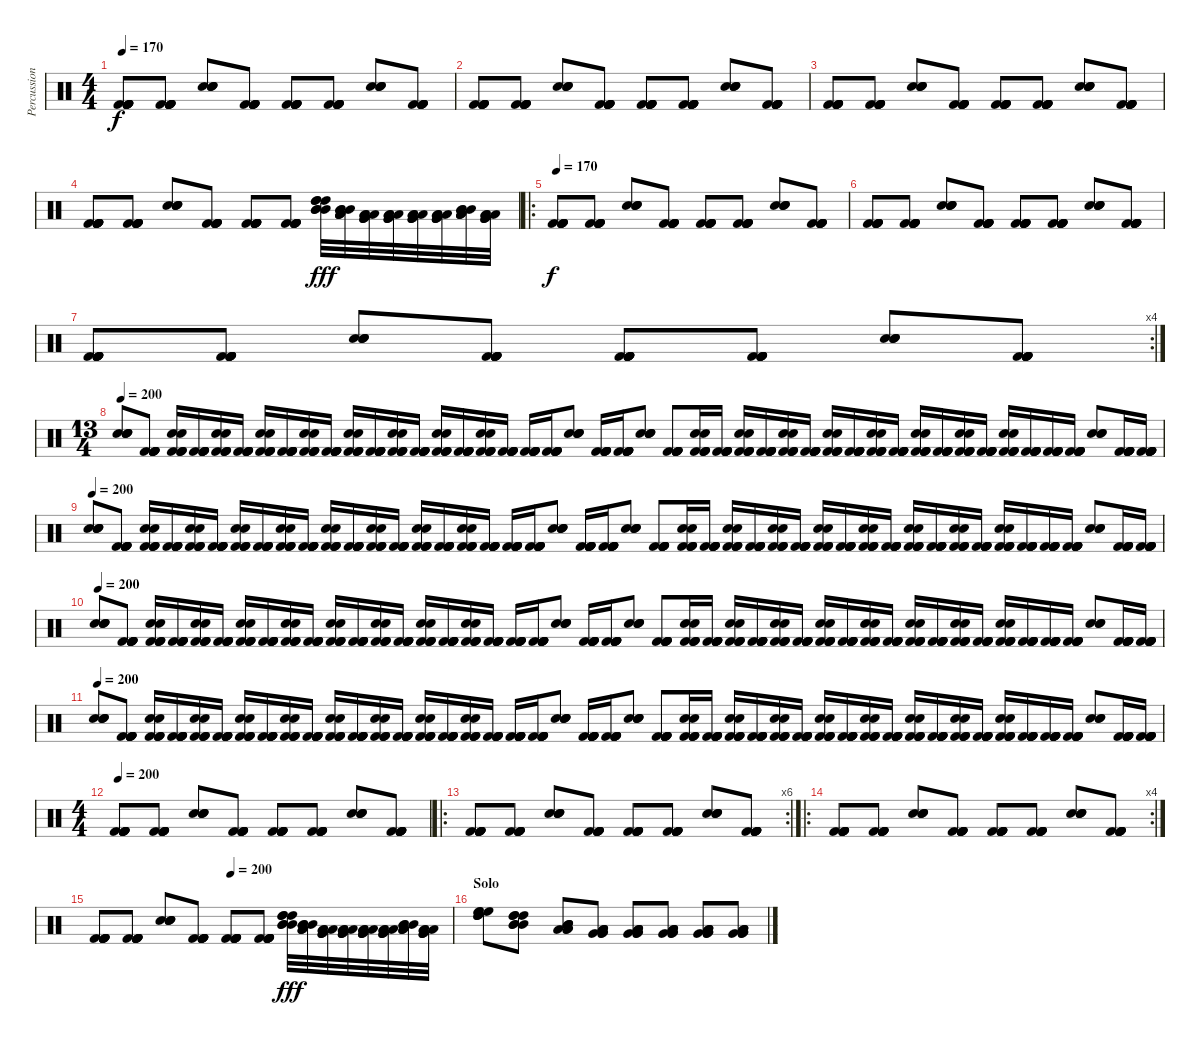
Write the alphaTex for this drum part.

\track ("Percussion" "Percussion") {instrument percussion}
\staff {score}
\articulation defaults
\ts (4 4)
\tempo 170
\clef neutral
\ks c
("Kick (hit) 2" "Kick (hit) 2" "Kick (hit) 2" "Kick (hit) 2" "Kick (hit) 2" "Kick (hit) 2").8{dy f} ("Kick (hit) 2" "Kick (hit) 2" "Kick (hit) 2" "Kick (hit) 2" "Kick (hit) 2" "Kick (hit) 2").8 ("Snare (hit) 2" "Snare (hit) 2" "Snare (hit) 2" "Snare (hit) 2").8 ("Kick (hit) 2" "Kick (hit) 2" "Kick (hit) 2" "Kick (hit) 2" "Kick (hit) 2" "Kick (hit) 2").8 ("Kick (hit) 2" "Kick (hit) 2" "Kick (hit) 2" "Kick (hit) 2" "Kick (hit) 2" "Kick (hit) 2").8 ("Kick (hit) 2" "Kick (hit) 2" "Kick (hit) 2" "Kick (hit) 2" "Kick (hit) 2" "Kick (hit) 2").8 ("Snare (hit) 2" "Snare (hit) 2" "Snare (hit) 2" "Snare (hit) 2").8 ("Kick (hit) 2" "Kick (hit) 2" "Kick (hit) 2" "Kick (hit) 2" "Kick (hit) 2" "Kick (hit) 2").8 |
("Kick (hit) 2" "Kick (hit) 2" "Kick (hit) 2" "Kick (hit) 2" "Kick (hit) 2" "Kick (hit) 2").8 ("Kick (hit) 2" "Kick (hit) 2" "Kick (hit) 2" "Kick (hit) 2" "Kick (hit) 2" "Kick (hit) 2").8 ("Snare (hit) 2" "Snare (hit) 2" "Snare (hit) 2" "Snare (hit) 2").8 ("Kick (hit) 2" "Kick (hit) 2" "Kick (hit) 2" "Kick (hit) 2" "Kick (hit) 2" "Kick (hit) 2").8 ("Kick (hit) 2" "Kick (hit) 2" "Kick (hit) 2" "Kick (hit) 2" "Kick (hit) 2" "Kick (hit) 2").8 ("Kick (hit) 2" "Kick (hit) 2" "Kick (hit) 2" "Kick (hit) 2" "Kick (hit) 2" "Kick (hit) 2").8 ("Snare (hit) 2" "Snare (hit) 2" "Snare (hit) 2" "Snare (hit) 2").8 ("Kick (hit) 2" "Kick (hit) 2" "Kick (hit) 2" "Kick (hit) 2" "Kick (hit) 2" "Kick (hit) 2").8 |
("Kick (hit) 2" "Kick (hit) 2" "Kick (hit) 2" "Kick (hit) 2" "Kick (hit) 2" "Kick (hit) 2").8 ("Kick (hit) 2" "Kick (hit) 2" "Kick (hit) 2" "Kick (hit) 2" "Kick (hit) 2" "Kick (hit) 2").8 ("Snare (hit) 2" "Snare (hit) 2" "Snare (hit) 2" "Snare (hit) 2").8 ("Kick (hit) 2" "Kick (hit) 2" "Kick (hit) 2" "Kick (hit) 2" "Kick (hit) 2" "Kick (hit) 2").8 ("Kick (hit) 2" "Kick (hit) 2" "Kick (hit) 2" "Kick (hit) 2" "Kick (hit) 2" "Kick (hit) 2").8 ("Kick (hit) 2" "Kick (hit) 2" "Kick (hit) 2" "Kick (hit) 2" "Kick (hit) 2" "Kick (hit) 2").8 ("Snare (hit) 2" "Snare (hit) 2" "Snare (hit) 2" "Snare (hit) 2").8 ("Kick (hit) 2" "Kick (hit) 2" "Kick (hit) 2" "Kick (hit) 2" "Kick (hit) 2" "Kick (hit) 2").8 |
("Kick (hit) 2" "Kick (hit) 2" "Kick (hit) 2" "Kick (hit) 2" "Kick (hit) 2" "Kick (hit) 2").8 ("Kick (hit) 2" "Kick (hit) 2" "Kick (hit) 2" "Kick (hit) 2" "Kick (hit) 2" "Kick (hit) 2").8 ("Snare (hit) 2" "Snare (hit) 2" "Snare (hit) 2" "Snare (hit) 2").8 ("Kick (hit) 2" "Kick (hit) 2" "Kick (hit) 2" "Kick (hit) 2" "Kick (hit) 2" "Kick (hit) 2").8 ("Kick (hit) 2" "Kick (hit) 2" "Kick (hit) 2" "Kick (hit) 2" "Kick (hit) 2" "Kick (hit) 2").8 ("Kick (hit) 2" "Kick (hit) 2" "Kick (hit) 2" "Kick (hit) 2" "Kick (hit) 2" "Kick (hit) 2").8 ("High Tom (hit)" "High Tom (hit)" "High Tom (hit)" "Mid Tom (hit)" "Mid Tom (hit)" "Mid Tom (hit)").32{dy fff} ("Mid Tom (hit)" "Mid Tom (hit)" "Mid Tom (hit)" "Low Tom (hit)" "Low Tom (hit)" "Low Tom (hit)").32 ("Low Tom (hit)" "Low Tom (hit)" "Low Tom (hit)" "Very Low Tom (hit)" "Very Low Tom (hit)" "Very Low Tom (hit)").32 ("Very Low Tom (hit)" "Very Low Tom (hit)" "Very Low Tom (hit)" "Low Floor Tom (hit)" "Low Floor Tom (hit)" "Low Floor Tom (hit)").32 ("Low Tom (hit)" "Low Tom (hit)" "Low Tom (hit)" "Very Low Tom (hit)" "Very Low Tom (hit)" "Very Low Tom (hit)").32 ("Very Low Tom (hit)" "Very Low Tom (hit)" "Very Low Tom (hit)" "Low Floor Tom (hit)" "Low Floor Tom (hit)" "Low Floor Tom (hit)").32 ("Mid Tom (hit)" "Mid Tom (hit)" "Mid Tom (hit)" "Low Tom (hit)" "Low Tom (hit)" "Low Tom (hit)").32 ("Very Low Tom (hit)" "Very Low Tom (hit)" "Very Low Tom (hit)" "Low Floor Tom (hit)" "Low Floor Tom (hit)" "Low Floor Tom (hit)").32 |
\ro
\tempo 170
("Kick (hit) 2" "Kick (hit) 2" "Kick (hit) 2" "Kick (hit) 2" "Kick (hit) 2" "Kick (hit) 2").8{dy f} ("Kick (hit) 2" "Kick (hit) 2" "Kick (hit) 2" "Kick (hit) 2" "Kick (hit) 2" "Kick (hit) 2").8 ("Snare (hit) 2" "Snare (hit) 2" "Snare (hit) 2" "Snare (hit) 2").8 ("Kick (hit) 2" "Kick (hit) 2" "Kick (hit) 2" "Kick (hit) 2" "Kick (hit) 2" "Kick (hit) 2").8 ("Kick (hit) 2" "Kick (hit) 2" "Kick (hit) 2" "Kick (hit) 2" "Kick (hit) 2" "Kick (hit) 2").8 ("Kick (hit) 2" "Kick (hit) 2" "Kick (hit) 2" "Kick (hit) 2" "Kick (hit) 2" "Kick (hit) 2").8 ("Snare (hit) 2" "Snare (hit) 2" "Snare (hit) 2" "Snare (hit) 2").8 ("Kick (hit) 2" "Kick (hit) 2" "Kick (hit) 2" "Kick (hit) 2" "Kick (hit) 2" "Kick (hit) 2").8 |
("Kick (hit) 2" "Kick (hit) 2" "Kick (hit) 2" "Kick (hit) 2" "Kick (hit) 2" "Kick (hit) 2").8 ("Kick (hit) 2" "Kick (hit) 2" "Kick (hit) 2" "Kick (hit) 2" "Kick (hit) 2" "Kick (hit) 2").8 ("Snare (hit) 2" "Snare (hit) 2" "Snare (hit) 2" "Snare (hit) 2").8 ("Kick (hit) 2" "Kick (hit) 2" "Kick (hit) 2" "Kick (hit) 2" "Kick (hit) 2" "Kick (hit) 2").8 ("Kick (hit) 2" "Kick (hit) 2" "Kick (hit) 2" "Kick (hit) 2" "Kick (hit) 2" "Kick (hit) 2").8 ("Kick (hit) 2" "Kick (hit) 2" "Kick (hit) 2" "Kick (hit) 2" "Kick (hit) 2" "Kick (hit) 2").8 ("Snare (hit) 2" "Snare (hit) 2" "Snare (hit) 2" "Snare (hit) 2").8 ("Kick (hit) 2" "Kick (hit) 2" "Kick (hit) 2" "Kick (hit) 2" "Kick (hit) 2" "Kick (hit) 2").8 |
\rc 4
("Kick (hit) 2" "Kick (hit) 2" "Kick (hit) 2" "Kick (hit) 2" "Kick (hit) 2" "Kick (hit) 2").8 ("Kick (hit) 2" "Kick (hit) 2" "Kick (hit) 2" "Kick (hit) 2" "Kick (hit) 2" "Kick (hit) 2").8 ("Snare (hit) 2" "Snare (hit) 2" "Snare (hit) 2" "Snare (hit) 2").8 ("Kick (hit) 2" "Kick (hit) 2" "Kick (hit) 2" "Kick (hit) 2" "Kick (hit) 2" "Kick (hit) 2").8 ("Kick (hit) 2" "Kick (hit) 2" "Kick (hit) 2" "Kick (hit) 2" "Kick (hit) 2" "Kick (hit) 2").8 ("Kick (hit) 2" "Kick (hit) 2" "Kick (hit) 2" "Kick (hit) 2" "Kick (hit) 2" "Kick (hit) 2").8 ("Snare (hit) 2" "Snare (hit) 2" "Snare (hit) 2" "Snare (hit) 2").8 ("Kick (hit) 2" "Kick (hit) 2" "Kick (hit) 2" "Kick (hit) 2" "Kick (hit) 2" "Kick (hit) 2").8 |
\ts (13 4)
\tempo 200
("Snare (hit) 2" "Snare (hit) 2" "Snare (hit) 2" "Snare (hit) 2").8 ("Kick (hit) 2" "Kick (hit) 2" "Kick (hit) 2" "Kick (hit) 2" "Kick (hit) 2" "Kick (hit) 2").8 ("Kick (hit) 2" "Kick (hit) 2" "Kick (hit) 2" "Kick (hit) 2" "Snare (hit) 2" "Snare (hit) 2").16 ("Kick (hit) 2" "Kick (hit) 2" "Kick (hit) 2" "Kick (hit) 2" "Kick (hit) 2" "Kick (hit) 2").16 ("Kick (hit) 2" "Kick (hit) 2" "Kick (hit) 2" "Kick (hit) 2" "Snare (hit) 2" "Snare (hit) 2").16 ("Kick (hit) 2" "Kick (hit) 2" "Kick (hit) 2" "Kick (hit) 2" "Kick (hit) 2" "Kick (hit) 2").16 ("Kick (hit) 2" "Kick (hit) 2" "Kick (hit) 2" "Kick (hit) 2" "Snare (hit) 2" "Snare (hit) 2").16 ("Kick (hit) 2" "Kick (hit) 2" "Kick (hit) 2" "Kick (hit) 2" "Kick (hit) 2" "Kick (hit) 2").16 ("Kick (hit) 2" "Kick (hit) 2" "Kick (hit) 2" "Kick (hit) 2" "Snare (hit) 2" "Snare (hit) 2").16 ("Kick (hit) 2" "Kick (hit) 2" "Kick (hit) 2" "Kick (hit) 2" "Kick (hit) 2" "Kick (hit) 2").16 ("Kick (hit) 2" "Kick (hit) 2" "Kick (hit) 2" "Kick (hit) 2" "Snare (hit) 2" "Snare (hit) 2").16 ("Kick (hit) 2" "Kick (hit) 2" "Kick (hit) 2" "Kick (hit) 2" "Kick (hit) 2" "Kick (hit) 2").16 ("Kick (hit) 2" "Kick (hit) 2" "Kick (hit) 2" "Kick (hit) 2" "Snare (hit) 2" "Snare (hit) 2").16 ("Kick (hit) 2" "Kick (hit) 2" "Kick (hit) 2" "Kick (hit) 2" "Kick (hit) 2" "Kick (hit) 2").16 ("Kick (hit) 2" "Kick (hit) 2" "Kick (hit) 2" "Kick (hit) 2" "Snare (hit) 2" "Snare (hit) 2").16 ("Kick (hit) 2" "Kick (hit) 2" "Kick (hit) 2" "Kick (hit) 2" "Kick (hit) 2" "Kick (hit) 2").16 ("Kick (hit) 2" "Kick (hit) 2" "Kick (hit) 2" "Kick (hit) 2" "Snare (hit) 2" "Snare (hit) 2").16 ("Kick (hit) 2" "Kick (hit) 2" "Kick (hit) 2" "Kick (hit) 2" "Kick (hit) 2" "Kick (hit) 2").16 ("Kick (hit) 2" "Kick (hit) 2" "Kick (hit) 2" "Kick (hit) 2" "Kick (hit) 2" "Kick (hit) 2").16 ("Kick (hit) 2" "Kick (hit) 2" "Kick (hit) 2" "Kick (hit) 2" "Kick (hit) 2" "Kick (hit) 2").16 ("Snare (hit) 2" "Snare (hit) 2" "Snare (hit) 2" "Snare (hit) 2").8 ("Kick (hit) 2" "Kick (hit) 2" "Kick (hit) 2" "Kick (hit) 2" "Kick (hit) 2" "Kick (hit) 2").16 ("Kick (hit) 2" "Kick (hit) 2" "Kick (hit) 2" "Kick (hit) 2" "Kick (hit) 2" "Kick (hit) 2").16 ("Snare (hit) 2" "Snare (hit) 2" "Snare (hit) 2" "Snare (hit) 2").8 ("Kick (hit) 2" "Kick (hit) 2" "Kick (hit) 2" "Kick (hit) 2" "Kick (hit) 2" "Kick (hit) 2").8 ("Kick (hit) 2" "Kick (hit) 2" "Kick (hit) 2" "Kick (hit) 2" "Snare (hit) 2" "Snare (hit) 2").16 ("Kick (hit) 2" "Kick (hit) 2" "Kick (hit) 2" "Kick (hit) 2" "Kick (hit) 2" "Kick (hit) 2").16 ("Kick (hit) 2" "Kick (hit) 2" "Kick (hit) 2" "Kick (hit) 2" "Snare (hit) 2" "Snare (hit) 2").16 ("Kick (hit) 2" "Kick (hit) 2" "Kick (hit) 2" "Kick (hit) 2" "Kick (hit) 2" "Kick (hit) 2").16 ("Kick (hit) 2" "Kick (hit) 2" "Kick (hit) 2" "Kick (hit) 2" "Snare (hit) 2" "Snare (hit) 2").16 ("Kick (hit) 2" "Kick (hit) 2" "Kick (hit) 2" "Kick (hit) 2" "Kick (hit) 2" "Kick (hit) 2").16 ("Kick (hit) 2" "Kick (hit) 2" "Kick (hit) 2" "Kick (hit) 2" "Snare (hit) 2" "Snare (hit) 2").16 ("Kick (hit) 2" "Kick (hit) 2" "Kick (hit) 2" "Kick (hit) 2" "Kick (hit) 2" "Kick (hit) 2").16 ("Kick (hit) 2" "Kick (hit) 2" "Kick (hit) 2" "Kick (hit) 2" "Snare (hit) 2" "Snare (hit) 2").16 ("Kick (hit) 2" "Kick (hit) 2" "Kick (hit) 2" "Kick (hit) 2" "Kick (hit) 2" "Kick (hit) 2").16 ("Kick (hit) 2" "Kick (hit) 2" "Kick (hit) 2" "Kick (hit) 2" "Snare (hit) 2" "Snare (hit) 2").16 ("Kick (hit) 2" "Kick (hit) 2" "Kick (hit) 2" "Kick (hit) 2" "Kick (hit) 2" "Kick (hit) 2").16 ("Kick (hit) 2" "Kick (hit) 2" "Kick (hit) 2" "Kick (hit) 2" "Snare (hit) 2" "Snare (hit) 2").16 ("Kick (hit) 2" "Kick (hit) 2" "Kick (hit) 2" "Kick (hit) 2" "Kick (hit) 2" "Kick (hit) 2").16 ("Kick (hit) 2" "Kick (hit) 2" "Kick (hit) 2" "Kick (hit) 2" "Snare (hit) 2" "Snare (hit) 2").16 ("Kick (hit) 2" "Kick (hit) 2" "Kick (hit) 2" "Kick (hit) 2" "Kick (hit) 2" "Kick (hit) 2").16 ("Kick (hit) 2" "Kick (hit) 2" "Kick (hit) 2" "Kick (hit) 2" "Kick (hit) 2" "Kick (hit) 2").16 ("Kick (hit) 2" "Kick (hit) 2" "Kick (hit) 2" "Kick (hit) 2" "Kick (hit) 2" "Kick (hit) 2").16 ("Snare (hit) 2" "Snare (hit) 2" "Snare (hit) 2").8 ("Kick (hit) 2" "Kick (hit) 2" "Kick (hit) 2" "Kick (hit) 2" "Kick (hit) 2" "Kick (hit) 2").16 ("Kick (hit) 2" "Kick (hit) 2" "Kick (hit) 2" "Kick (hit) 2" "Kick (hit) 2" "Kick (hit) 2").16 |
\tempo 200
("Snare (hit) 2" "Snare (hit) 2" "Snare (hit) 2" "Snare (hit) 2").8 ("Kick (hit) 2" "Kick (hit) 2" "Kick (hit) 2" "Kick (hit) 2" "Kick (hit) 2" "Kick (hit) 2").8 ("Kick (hit) 2" "Kick (hit) 2" "Kick (hit) 2" "Kick (hit) 2" "Snare (hit) 2" "Snare (hit) 2").16 ("Kick (hit) 2" "Kick (hit) 2" "Kick (hit) 2" "Kick (hit) 2" "Kick (hit) 2" "Kick (hit) 2").16 ("Kick (hit) 2" "Kick (hit) 2" "Kick (hit) 2" "Kick (hit) 2" "Snare (hit) 2" "Snare (hit) 2").16 ("Kick (hit) 2" "Kick (hit) 2" "Kick (hit) 2" "Kick (hit) 2" "Kick (hit) 2" "Kick (hit) 2").16 ("Kick (hit) 2" "Kick (hit) 2" "Kick (hit) 2" "Kick (hit) 2" "Snare (hit) 2" "Snare (hit) 2").16 ("Kick (hit) 2" "Kick (hit) 2" "Kick (hit) 2" "Kick (hit) 2" "Kick (hit) 2" "Kick (hit) 2").16 ("Kick (hit) 2" "Kick (hit) 2" "Kick (hit) 2" "Kick (hit) 2" "Snare (hit) 2" "Snare (hit) 2").16 ("Kick (hit) 2" "Kick (hit) 2" "Kick (hit) 2" "Kick (hit) 2" "Kick (hit) 2" "Kick (hit) 2").16 ("Kick (hit) 2" "Kick (hit) 2" "Kick (hit) 2" "Kick (hit) 2" "Snare (hit) 2" "Snare (hit) 2").16 ("Kick (hit) 2" "Kick (hit) 2" "Kick (hit) 2" "Kick (hit) 2" "Kick (hit) 2" "Kick (hit) 2").16 ("Kick (hit) 2" "Kick (hit) 2" "Kick (hit) 2" "Kick (hit) 2" "Snare (hit) 2" "Snare (hit) 2").16 ("Kick (hit) 2" "Kick (hit) 2" "Kick (hit) 2" "Kick (hit) 2" "Kick (hit) 2" "Kick (hit) 2").16 ("Kick (hit) 2" "Kick (hit) 2" "Kick (hit) 2" "Kick (hit) 2" "Snare (hit) 2" "Snare (hit) 2").16 ("Kick (hit) 2" "Kick (hit) 2" "Kick (hit) 2" "Kick (hit) 2" "Kick (hit) 2" "Kick (hit) 2").16 ("Kick (hit) 2" "Kick (hit) 2" "Kick (hit) 2" "Kick (hit) 2" "Snare (hit) 2" "Snare (hit) 2").16 ("Kick (hit) 2" "Kick (hit) 2" "Kick (hit) 2" "Kick (hit) 2" "Kick (hit) 2" "Kick (hit) 2").16 ("Kick (hit) 2" "Kick (hit) 2" "Kick (hit) 2" "Kick (hit) 2" "Kick (hit) 2" "Kick (hit) 2").16 ("Kick (hit) 2" "Kick (hit) 2" "Kick (hit) 2" "Kick (hit) 2" "Kick (hit) 2" "Kick (hit) 2").16 ("Snare (hit) 2" "Snare (hit) 2" "Snare (hit) 2" "Snare (hit) 2").8 ("Kick (hit) 2" "Kick (hit) 2" "Kick (hit) 2" "Kick (hit) 2" "Kick (hit) 2" "Kick (hit) 2").16 ("Kick (hit) 2" "Kick (hit) 2" "Kick (hit) 2" "Kick (hit) 2" "Kick (hit) 2" "Kick (hit) 2").16 ("Snare (hit) 2" "Snare (hit) 2" "Snare (hit) 2" "Snare (hit) 2").8 ("Kick (hit) 2" "Kick (hit) 2" "Kick (hit) 2" "Kick (hit) 2" "Kick (hit) 2" "Kick (hit) 2").8 ("Kick (hit) 2" "Kick (hit) 2" "Kick (hit) 2" "Kick (hit) 2" "Snare (hit) 2" "Snare (hit) 2").16 ("Kick (hit) 2" "Kick (hit) 2" "Kick (hit) 2" "Kick (hit) 2" "Kick (hit) 2" "Kick (hit) 2").16 ("Kick (hit) 2" "Kick (hit) 2" "Kick (hit) 2" "Kick (hit) 2" "Snare (hit) 2" "Snare (hit) 2").16 ("Kick (hit) 2" "Kick (hit) 2" "Kick (hit) 2" "Kick (hit) 2" "Kick (hit) 2" "Kick (hit) 2").16 ("Kick (hit) 2" "Kick (hit) 2" "Kick (hit) 2" "Kick (hit) 2" "Snare (hit) 2" "Snare (hit) 2").16 ("Kick (hit) 2" "Kick (hit) 2" "Kick (hit) 2" "Kick (hit) 2" "Kick (hit) 2" "Kick (hit) 2").16 ("Kick (hit) 2" "Kick (hit) 2" "Kick (hit) 2" "Kick (hit) 2" "Snare (hit) 2" "Snare (hit) 2").16 ("Kick (hit) 2" "Kick (hit) 2" "Kick (hit) 2" "Kick (hit) 2" "Kick (hit) 2" "Kick (hit) 2").16 ("Kick (hit) 2" "Kick (hit) 2" "Kick (hit) 2" "Kick (hit) 2" "Snare (hit) 2" "Snare (hit) 2").16 ("Kick (hit) 2" "Kick (hit) 2" "Kick (hit) 2" "Kick (hit) 2" "Kick (hit) 2" "Kick (hit) 2").16 ("Kick (hit) 2" "Kick (hit) 2" "Kick (hit) 2" "Kick (hit) 2" "Snare (hit) 2" "Snare (hit) 2").16 ("Kick (hit) 2" "Kick (hit) 2" "Kick (hit) 2" "Kick (hit) 2" "Kick (hit) 2" "Kick (hit) 2").16 ("Kick (hit) 2" "Kick (hit) 2" "Kick (hit) 2" "Kick (hit) 2" "Snare (hit) 2" "Snare (hit) 2").16 ("Kick (hit) 2" "Kick (hit) 2" "Kick (hit) 2" "Kick (hit) 2" "Kick (hit) 2" "Kick (hit) 2").16 ("Kick (hit) 2" "Kick (hit) 2" "Kick (hit) 2" "Kick (hit) 2" "Snare (hit) 2" "Snare (hit) 2").16 ("Kick (hit) 2" "Kick (hit) 2" "Kick (hit) 2" "Kick (hit) 2" "Kick (hit) 2" "Kick (hit) 2").16 ("Kick (hit) 2" "Kick (hit) 2" "Kick (hit) 2" "Kick (hit) 2" "Kick (hit) 2" "Kick (hit) 2").16 ("Kick (hit) 2" "Kick (hit) 2" "Kick (hit) 2" "Kick (hit) 2" "Kick (hit) 2" "Kick (hit) 2").16 ("Snare (hit) 2" "Snare (hit) 2" "Snare (hit) 2").8 ("Kick (hit) 2" "Kick (hit) 2" "Kick (hit) 2" "Kick (hit) 2" "Kick (hit) 2" "Kick (hit) 2").16 ("Kick (hit) 2" "Kick (hit) 2" "Kick (hit) 2" "Kick (hit) 2" "Kick (hit) 2" "Kick (hit) 2").16 |
\tempo 200
("Snare (hit) 2" "Snare (hit) 2" "Snare (hit) 2" "Snare (hit) 2").8 ("Kick (hit) 2" "Kick (hit) 2" "Kick (hit) 2" "Kick (hit) 2" "Kick (hit) 2" "Kick (hit) 2").8 ("Kick (hit) 2" "Kick (hit) 2" "Kick (hit) 2" "Kick (hit) 2" "Snare (hit) 2" "Snare (hit) 2").16 ("Kick (hit) 2" "Kick (hit) 2" "Kick (hit) 2" "Kick (hit) 2" "Kick (hit) 2" "Kick (hit) 2").16 ("Kick (hit) 2" "Kick (hit) 2" "Kick (hit) 2" "Kick (hit) 2" "Snare (hit) 2" "Snare (hit) 2").16 ("Kick (hit) 2" "Kick (hit) 2" "Kick (hit) 2" "Kick (hit) 2" "Kick (hit) 2" "Kick (hit) 2").16 ("Kick (hit) 2" "Kick (hit) 2" "Kick (hit) 2" "Kick (hit) 2" "Snare (hit) 2" "Snare (hit) 2").16 ("Kick (hit) 2" "Kick (hit) 2" "Kick (hit) 2" "Kick (hit) 2" "Kick (hit) 2" "Kick (hit) 2").16 ("Kick (hit) 2" "Kick (hit) 2" "Kick (hit) 2" "Kick (hit) 2" "Snare (hit) 2" "Snare (hit) 2").16 ("Kick (hit) 2" "Kick (hit) 2" "Kick (hit) 2" "Kick (hit) 2" "Kick (hit) 2" "Kick (hit) 2").16 ("Kick (hit) 2" "Kick (hit) 2" "Kick (hit) 2" "Kick (hit) 2" "Snare (hit) 2" "Snare (hit) 2").16 ("Kick (hit) 2" "Kick (hit) 2" "Kick (hit) 2" "Kick (hit) 2" "Kick (hit) 2" "Kick (hit) 2").16 ("Kick (hit) 2" "Kick (hit) 2" "Kick (hit) 2" "Kick (hit) 2" "Snare (hit) 2" "Snare (hit) 2").16 ("Kick (hit) 2" "Kick (hit) 2" "Kick (hit) 2" "Kick (hit) 2" "Kick (hit) 2" "Kick (hit) 2").16 ("Kick (hit) 2" "Kick (hit) 2" "Kick (hit) 2" "Kick (hit) 2" "Snare (hit) 2" "Snare (hit) 2").16 ("Kick (hit) 2" "Kick (hit) 2" "Kick (hit) 2" "Kick (hit) 2" "Kick (hit) 2" "Kick (hit) 2").16 ("Kick (hit) 2" "Kick (hit) 2" "Kick (hit) 2" "Kick (hit) 2" "Snare (hit) 2" "Snare (hit) 2").16 ("Kick (hit) 2" "Kick (hit) 2" "Kick (hit) 2" "Kick (hit) 2" "Kick (hit) 2" "Kick (hit) 2").16 ("Kick (hit) 2" "Kick (hit) 2" "Kick (hit) 2" "Kick (hit) 2" "Kick (hit) 2" "Kick (hit) 2").16 ("Kick (hit) 2" "Kick (hit) 2" "Kick (hit) 2" "Kick (hit) 2" "Kick (hit) 2" "Kick (hit) 2").16 ("Snare (hit) 2" "Snare (hit) 2" "Snare (hit) 2" "Snare (hit) 2").8 ("Kick (hit) 2" "Kick (hit) 2" "Kick (hit) 2" "Kick (hit) 2" "Kick (hit) 2" "Kick (hit) 2").16 ("Kick (hit) 2" "Kick (hit) 2" "Kick (hit) 2" "Kick (hit) 2" "Kick (hit) 2" "Kick (hit) 2").16 ("Snare (hit) 2" "Snare (hit) 2" "Snare (hit) 2" "Snare (hit) 2").8 ("Kick (hit) 2" "Kick (hit) 2" "Kick (hit) 2" "Kick (hit) 2" "Kick (hit) 2" "Kick (hit) 2").8 ("Kick (hit) 2" "Kick (hit) 2" "Kick (hit) 2" "Kick (hit) 2" "Snare (hit) 2" "Snare (hit) 2").16 ("Kick (hit) 2" "Kick (hit) 2" "Kick (hit) 2" "Kick (hit) 2" "Kick (hit) 2" "Kick (hit) 2").16 ("Kick (hit) 2" "Kick (hit) 2" "Kick (hit) 2" "Kick (hit) 2" "Snare (hit) 2" "Snare (hit) 2").16 ("Kick (hit) 2" "Kick (hit) 2" "Kick (hit) 2" "Kick (hit) 2" "Kick (hit) 2" "Kick (hit) 2").16 ("Kick (hit) 2" "Kick (hit) 2" "Kick (hit) 2" "Kick (hit) 2" "Snare (hit) 2" "Snare (hit) 2").16 ("Kick (hit) 2" "Kick (hit) 2" "Kick (hit) 2" "Kick (hit) 2" "Kick (hit) 2" "Kick (hit) 2").16 ("Kick (hit) 2" "Kick (hit) 2" "Kick (hit) 2" "Kick (hit) 2" "Snare (hit) 2" "Snare (hit) 2").16 ("Kick (hit) 2" "Kick (hit) 2" "Kick (hit) 2" "Kick (hit) 2" "Kick (hit) 2" "Kick (hit) 2").16 ("Kick (hit) 2" "Kick (hit) 2" "Kick (hit) 2" "Kick (hit) 2" "Snare (hit) 2" "Snare (hit) 2").16 ("Kick (hit) 2" "Kick (hit) 2" "Kick (hit) 2" "Kick (hit) 2" "Kick (hit) 2" "Kick (hit) 2").16 ("Kick (hit) 2" "Kick (hit) 2" "Kick (hit) 2" "Kick (hit) 2" "Snare (hit) 2" "Snare (hit) 2").16 ("Kick (hit) 2" "Kick (hit) 2" "Kick (hit) 2" "Kick (hit) 2" "Kick (hit) 2" "Kick (hit) 2").16 ("Kick (hit) 2" "Kick (hit) 2" "Kick (hit) 2" "Kick (hit) 2" "Snare (hit) 2" "Snare (hit) 2").16 ("Kick (hit) 2" "Kick (hit) 2" "Kick (hit) 2" "Kick (hit) 2" "Kick (hit) 2" "Kick (hit) 2").16 ("Kick (hit) 2" "Kick (hit) 2" "Kick (hit) 2" "Kick (hit) 2" "Snare (hit) 2" "Snare (hit) 2").16 ("Kick (hit) 2" "Kick (hit) 2" "Kick (hit) 2" "Kick (hit) 2" "Kick (hit) 2" "Kick (hit) 2").16 ("Kick (hit) 2" "Kick (hit) 2" "Kick (hit) 2" "Kick (hit) 2" "Kick (hit) 2" "Kick (hit) 2").16 ("Kick (hit) 2" "Kick (hit) 2" "Kick (hit) 2" "Kick (hit) 2" "Kick (hit) 2" "Kick (hit) 2").16 ("Snare (hit) 2" "Snare (hit) 2" "Snare (hit) 2").8 ("Kick (hit) 2" "Kick (hit) 2" "Kick (hit) 2" "Kick (hit) 2" "Kick (hit) 2" "Kick (hit) 2").16 ("Kick (hit) 2" "Kick (hit) 2" "Kick (hit) 2" "Kick (hit) 2" "Kick (hit) 2" "Kick (hit) 2").16 |
\tempo 200
("Snare (hit) 2" "Snare (hit) 2" "Snare (hit) 2" "Snare (hit) 2").8 ("Kick (hit) 2" "Kick (hit) 2" "Kick (hit) 2" "Kick (hit) 2" "Kick (hit) 2" "Kick (hit) 2").8 ("Kick (hit) 2" "Kick (hit) 2" "Kick (hit) 2" "Kick (hit) 2" "Snare (hit) 2" "Snare (hit) 2").16 ("Kick (hit) 2" "Kick (hit) 2" "Kick (hit) 2" "Kick (hit) 2" "Kick (hit) 2" "Kick (hit) 2").16 ("Kick (hit) 2" "Kick (hit) 2" "Kick (hit) 2" "Kick (hit) 2" "Snare (hit) 2" "Snare (hit) 2").16 ("Kick (hit) 2" "Kick (hit) 2" "Kick (hit) 2" "Kick (hit) 2" "Kick (hit) 2" "Kick (hit) 2").16 ("Kick (hit) 2" "Kick (hit) 2" "Kick (hit) 2" "Kick (hit) 2" "Snare (hit) 2" "Snare (hit) 2").16 ("Kick (hit) 2" "Kick (hit) 2" "Kick (hit) 2" "Kick (hit) 2" "Kick (hit) 2" "Kick (hit) 2").16 ("Kick (hit) 2" "Kick (hit) 2" "Kick (hit) 2" "Kick (hit) 2" "Snare (hit) 2" "Snare (hit) 2").16 ("Kick (hit) 2" "Kick (hit) 2" "Kick (hit) 2" "Kick (hit) 2" "Kick (hit) 2" "Kick (hit) 2").16 ("Kick (hit) 2" "Kick (hit) 2" "Kick (hit) 2" "Kick (hit) 2" "Snare (hit) 2" "Snare (hit) 2").16 ("Kick (hit) 2" "Kick (hit) 2" "Kick (hit) 2" "Kick (hit) 2" "Kick (hit) 2" "Kick (hit) 2").16 ("Kick (hit) 2" "Kick (hit) 2" "Kick (hit) 2" "Kick (hit) 2" "Snare (hit) 2" "Snare (hit) 2").16 ("Kick (hit) 2" "Kick (hit) 2" "Kick (hit) 2" "Kick (hit) 2" "Kick (hit) 2" "Kick (hit) 2").16 ("Kick (hit) 2" "Kick (hit) 2" "Kick (hit) 2" "Kick (hit) 2" "Snare (hit) 2" "Snare (hit) 2").16 ("Kick (hit) 2" "Kick (hit) 2" "Kick (hit) 2" "Kick (hit) 2" "Kick (hit) 2" "Kick (hit) 2").16 ("Kick (hit) 2" "Kick (hit) 2" "Kick (hit) 2" "Kick (hit) 2" "Snare (hit) 2" "Snare (hit) 2").16 ("Kick (hit) 2" "Kick (hit) 2" "Kick (hit) 2" "Kick (hit) 2" "Kick (hit) 2" "Kick (hit) 2").16 ("Kick (hit) 2" "Kick (hit) 2" "Kick (hit) 2" "Kick (hit) 2" "Kick (hit) 2" "Kick (hit) 2").16 ("Kick (hit) 2" "Kick (hit) 2" "Kick (hit) 2" "Kick (hit) 2" "Kick (hit) 2" "Kick (hit) 2").16 ("Snare (hit) 2" "Snare (hit) 2" "Snare (hit) 2" "Snare (hit) 2").8 ("Kick (hit) 2" "Kick (hit) 2" "Kick (hit) 2" "Kick (hit) 2" "Kick (hit) 2" "Kick (hit) 2").16 ("Kick (hit) 2" "Kick (hit) 2" "Kick (hit) 2" "Kick (hit) 2" "Kick (hit) 2" "Kick (hit) 2").16 ("Snare (hit) 2" "Snare (hit) 2" "Snare (hit) 2" "Snare (hit) 2").8 ("Kick (hit) 2" "Kick (hit) 2" "Kick (hit) 2" "Kick (hit) 2" "Kick (hit) 2" "Kick (hit) 2").8 ("Kick (hit) 2" "Kick (hit) 2" "Kick (hit) 2" "Kick (hit) 2" "Snare (hit) 2" "Snare (hit) 2").16 ("Kick (hit) 2" "Kick (hit) 2" "Kick (hit) 2" "Kick (hit) 2" "Kick (hit) 2" "Kick (hit) 2").16 ("Kick (hit) 2" "Kick (hit) 2" "Kick (hit) 2" "Kick (hit) 2" "Snare (hit) 2" "Snare (hit) 2").16 ("Kick (hit) 2" "Kick (hit) 2" "Kick (hit) 2" "Kick (hit) 2" "Kick (hit) 2" "Kick (hit) 2").16 ("Kick (hit) 2" "Kick (hit) 2" "Kick (hit) 2" "Kick (hit) 2" "Snare (hit) 2" "Snare (hit) 2").16 ("Kick (hit) 2" "Kick (hit) 2" "Kick (hit) 2" "Kick (hit) 2" "Kick (hit) 2" "Kick (hit) 2").16 ("Kick (hit) 2" "Kick (hit) 2" "Kick (hit) 2" "Kick (hit) 2" "Snare (hit) 2" "Snare (hit) 2").16 ("Kick (hit) 2" "Kick (hit) 2" "Kick (hit) 2" "Kick (hit) 2" "Kick (hit) 2" "Kick (hit) 2").16 ("Kick (hit) 2" "Kick (hit) 2" "Kick (hit) 2" "Kick (hit) 2" "Snare (hit) 2" "Snare (hit) 2").16 ("Kick (hit) 2" "Kick (hit) 2" "Kick (hit) 2" "Kick (hit) 2" "Kick (hit) 2" "Kick (hit) 2").16 ("Kick (hit) 2" "Kick (hit) 2" "Kick (hit) 2" "Kick (hit) 2" "Snare (hit) 2" "Snare (hit) 2").16 ("Kick (hit) 2" "Kick (hit) 2" "Kick (hit) 2" "Kick (hit) 2" "Kick (hit) 2" "Kick (hit) 2").16 ("Kick (hit) 2" "Kick (hit) 2" "Kick (hit) 2" "Kick (hit) 2" "Snare (hit) 2" "Snare (hit) 2").16 ("Kick (hit) 2" "Kick (hit) 2" "Kick (hit) 2" "Kick (hit) 2" "Kick (hit) 2" "Kick (hit) 2").16 ("Kick (hit) 2" "Kick (hit) 2" "Kick (hit) 2" "Kick (hit) 2" "Snare (hit) 2" "Snare (hit) 2").16 ("Kick (hit) 2" "Kick (hit) 2" "Kick (hit) 2" "Kick (hit) 2" "Kick (hit) 2" "Kick (hit) 2").16 ("Kick (hit) 2" "Kick (hit) 2" "Kick (hit) 2" "Kick (hit) 2" "Kick (hit) 2" "Kick (hit) 2").16 ("Kick (hit) 2" "Kick (hit) 2" "Kick (hit) 2" "Kick (hit) 2" "Kick (hit) 2" "Kick (hit) 2").16 ("Snare (hit) 2" "Snare (hit) 2" "Snare (hit) 2").8 ("Kick (hit) 2" "Kick (hit) 2" "Kick (hit) 2" "Kick (hit) 2" "Kick (hit) 2" "Kick (hit) 2").16 ("Kick (hit) 2" "Kick (hit) 2" "Kick (hit) 2" "Kick (hit) 2" "Kick (hit) 2" "Kick (hit) 2").16 |
\ts (4 4)
\tempo 200
("Kick (hit) 2" "Kick (hit) 2" "Kick (hit) 2" "Kick (hit) 2" "Kick (hit) 2" "Kick (hit) 2").8 ("Kick (hit) 2" "Kick (hit) 2" "Kick (hit) 2" "Kick (hit) 2" "Kick (hit) 2" "Kick (hit) 2").8 ("Snare (hit) 2" "Snare (hit) 2" "Snare (hit) 2" "Snare (hit) 2").8 ("Kick (hit) 2" "Kick (hit) 2" "Kick (hit) 2" "Kick (hit) 2" "Kick (hit) 2" "Kick (hit) 2").8 ("Kick (hit) 2" "Kick (hit) 2" "Kick (hit) 2" "Kick (hit) 2" "Kick (hit) 2" "Kick (hit) 2").8 ("Kick (hit) 2" "Kick (hit) 2" "Kick (hit) 2" "Kick (hit) 2" "Kick (hit) 2" "Kick (hit) 2").8 ("Snare (hit) 2" "Snare (hit) 2" "Snare (hit) 2" "Snare (hit) 2").8 ("Kick (hit) 2" "Kick (hit) 2" "Kick (hit) 2" "Kick (hit) 2" "Kick (hit) 2" "Kick (hit) 2").8 |
\ro
\rc 6
("Kick (hit) 2" "Kick (hit) 2" "Kick (hit) 2" "Kick (hit) 2" "Kick (hit) 2" "Kick (hit) 2").8 ("Kick (hit) 2" "Kick (hit) 2" "Kick (hit) 2" "Kick (hit) 2" "Kick (hit) 2" "Kick (hit) 2").8 ("Snare (hit) 2" "Snare (hit) 2" "Snare (hit) 2" "Snare (hit) 2").8 ("Kick (hit) 2" "Kick (hit) 2" "Kick (hit) 2" "Kick (hit) 2" "Kick (hit) 2" "Kick (hit) 2").8 ("Kick (hit) 2" "Kick (hit) 2" "Kick (hit) 2" "Kick (hit) 2" "Kick (hit) 2" "Kick (hit) 2").8 ("Kick (hit) 2" "Kick (hit) 2" "Kick (hit) 2" "Kick (hit) 2" "Kick (hit) 2" "Kick (hit) 2").8 ("Snare (hit) 2" "Snare (hit) 2" "Snare (hit) 2" "Snare (hit) 2").8 ("Kick (hit) 2" "Kick (hit) 2" "Kick (hit) 2" "Kick (hit) 2" "Kick (hit) 2" "Kick (hit) 2").8 |
\ro
\rc 4
("Kick (hit) 2" "Kick (hit) 2" "Kick (hit) 2" "Kick (hit) 2" "Kick (hit) 2" "Kick (hit) 2").8 ("Kick (hit) 2" "Kick (hit) 2" "Kick (hit) 2" "Kick (hit) 2" "Kick (hit) 2" "Kick (hit) 2").8 ("Snare (hit) 2" "Snare (hit) 2" "Snare (hit) 2" "Snare (hit) 2").8 ("Kick (hit) 2" "Kick (hit) 2" "Kick (hit) 2" "Kick (hit) 2" "Kick (hit) 2" "Kick (hit) 2").8 ("Kick (hit) 2" "Kick (hit) 2" "Kick (hit) 2" "Kick (hit) 2" "Kick (hit) 2" "Kick (hit) 2").8 ("Kick (hit) 2" "Kick (hit) 2" "Kick (hit) 2" "Kick (hit) 2" "Kick (hit) 2" "Kick (hit) 2").8 ("Snare (hit) 2" "Snare (hit) 2" "Snare (hit) 2" "Snare (hit) 2").8 ("Kick (hit) 2" "Kick (hit) 2" "Kick (hit) 2" "Kick (hit) 2" "Kick (hit) 2" "Kick (hit) 2").8 |
\tempo (200 0.375)
("Kick (hit) 2" "Kick (hit) 2" "Kick (hit) 2" "Kick (hit) 2" "Kick (hit) 2" "Kick (hit) 2").8 ("Kick (hit) 2" "Kick (hit) 2" "Kick (hit) 2" "Kick (hit) 2" "Kick (hit) 2" "Kick (hit) 2").8 ("Snare (hit) 2" "Snare (hit) 2" "Snare (hit) 2" "Snare (hit) 2").8 ("Kick (hit) 2" "Kick (hit) 2" "Kick (hit) 2" "Kick (hit) 2" "Kick (hit) 2" "Kick (hit) 2").8 ("Kick (hit) 2" "Kick (hit) 2" "Kick (hit) 2" "Kick (hit) 2" "Kick (hit) 2" "Kick (hit) 2").8 ("Kick (hit) 2" "Kick (hit) 2" "Kick (hit) 2" "Kick (hit) 2" "Kick (hit) 2" "Kick (hit) 2").8 ("High Tom (hit)" "High Tom (hit)" "High Tom (hit)" "Mid Tom (hit)" "Mid Tom (hit)" "Mid Tom (hit)").32{dy fff} ("Mid Tom (hit)" "Mid Tom (hit)" "Mid Tom (hit)" "Low Tom (hit)" "Low Tom (hit)" "Low Tom (hit)").32 ("Low Tom (hit)" "Low Tom (hit)" "Low Tom (hit)" "Very Low Tom (hit)" "Very Low Tom (hit)" "Very Low Tom (hit)").32 ("Very Low Tom (hit)" "Very Low Tom (hit)" "Very Low Tom (hit)" "Low Floor Tom (hit)" "Low Floor Tom (hit)" "Low Floor Tom (hit)").32 ("Low Tom (hit)" "Low Tom (hit)" "Low Tom (hit)" "Very Low Tom (hit)" "Very Low Tom (hit)" "Very Low Tom (hit)").32 ("Very Low Tom (hit)" "Very Low Tom (hit)" "Very Low Tom (hit)" "Low Floor Tom (hit)" "Low Floor Tom (hit)" "Low Floor Tom (hit)").32 ("Mid Tom (hit)" "Mid Tom (hit)" "Mid Tom (hit)" "Low Tom (hit)" "Low Tom (hit)" "Low Tom (hit)").32 ("Very Low Tom (hit)" "Very Low Tom (hit)" "Very Low Tom (hit)" "Low Floor Tom (hit)" "Low Floor Tom (hit)" "Low Floor Tom (hit)").32 |
\section ("" "Solo")
("High Floor Tom (hit)" "High Floor Tom (hit)" "High Floor Tom (hit)" "High Tom (hit)" "High Tom (hit)" "High Tom (hit)").8 ("High Tom (hit)" "High Tom (hit)" "High Tom (hit)" "Mid Tom (hit)" "Mid Tom (hit)" "Mid Tom (hit)").8 ("Mid Tom (hit)" "Mid Tom (hit)" "Mid Tom (hit)" "Low Tom (hit)" "Low Tom (hit)" "Low Tom (hit)").8 ("Low Tom (hit)" "Low Tom (hit)" "Low Tom (hit)" "Very Low Tom (hit)" "Very Low Tom (hit)" "Very Low Tom (hit)").8 ("Very Low Tom (hit)" "Very Low Tom (hit)" "Very Low Tom (hit)" "Low Floor Tom (hit)" "Low Floor Tom (hit)" "Low Floor Tom (hit)").8 ("Very Low Tom (hit)" "Very Low Tom (hit)" "Very Low Tom (hit)" "Low Floor Tom (hit)" "Low Floor Tom (hit)" "Low Floor Tom (hit)").8 ("Very Low Tom (hit)" "Very Low Tom (hit)" "Very Low Tom (hit)" "Low Floor Tom (hit)" "Low Floor Tom (hit)" "Low Floor Tom (hit)").8 ("Very Low Tom (hit)" "Very Low Tom (hit)" "Very Low Tom (hit)" "Low Floor Tom (hit)" "Low Floor Tom (hit)" "Low Floor Tom (hit)").8
